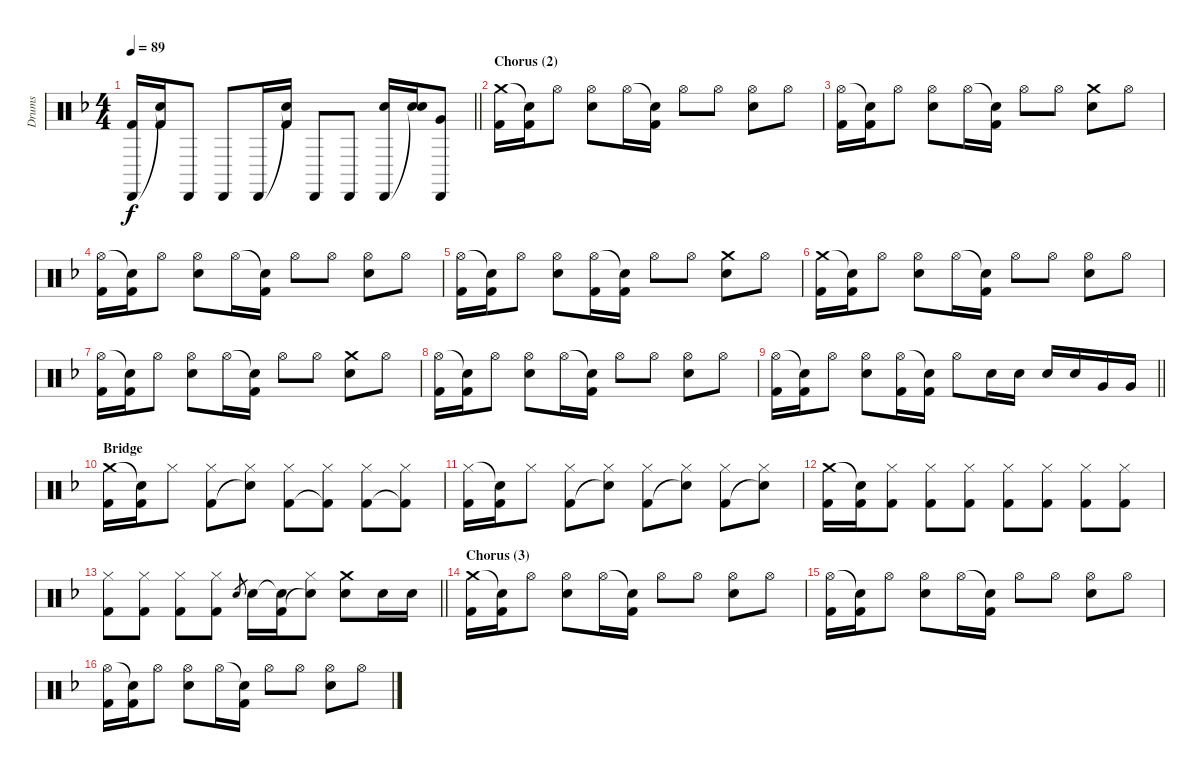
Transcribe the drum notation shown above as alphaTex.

\track ("Drums" "Drums") {instrument percussion}
\staff {score}
\articulation defaults
\ts (4 4)
\tempo 89
\clef neutral
\barLineRight lightlight
\ks dminor
("Cabasa (hit)" "Kick (hit) 2").16{dy f} ("Snare (hit)"{t} "Kick (hit) 2").16 "Cabasa (hit)".8 "Cabasa (hit)".8 "Cabasa (hit)".16 ("Snare (hit)"{t} "Kick (hit) 2").16 "Cabasa (hit)".8 "Cabasa (hit)".8 ("Cabasa (hit)" "Electric Snare (hit)").16 ("Snare (hit)"{t} "Electric Snare (hit)").16 ("Cabasa (hit)" "Very Low Tom (hit)").8 |
\section ("" "Chorus (2)")
("Crash medium (hit)" "Kick (hit) 2").16 ("Snare (hit)"{t} "Kick (hit) 2").16 "Hi-Hat (open)".8 ("Hi-Hat (open)" "Electric Snare (hit)").8 "Hi-Hat (open)".16 ("Snare (hit)"{t} "Kick (hit) 2").16 "Hi-Hat (open)".8 "Hi-Hat (open)".8 ("Hi-Hat (open)" "Electric Snare (hit)").8 "Hi-Hat (open)".8 |
("Hi-Hat (open)" "Kick (hit) 2").16 ("Snare (hit)"{t} "Kick (hit) 2").16 "Hi-Hat (open)".8 ("Hi-Hat (open)" "Electric Snare (hit)").8 "Hi-Hat (open)".16 ("Snare (hit)"{t} "Kick (hit) 2").16 "Hi-Hat (open)".8 "Hi-Hat (open)".8 ("Crash medium (hit)" "Electric Snare (hit)").8 "Hi-Hat (open)".8 |
("Hi-Hat (open)" "Kick (hit) 2").16 ("Snare (hit)"{t} "Kick (hit) 2").16 "Hi-Hat (open)".8 ("Hi-Hat (open)" "Electric Snare (hit)").8 "Hi-Hat (open)".16 ("Snare (hit)"{t} "Kick (hit) 2").16 "Hi-Hat (open)".8 "Hi-Hat (open)".8 ("Hi-Hat (open)" "Electric Snare (hit)").8 "Hi-Hat (open)".8 |
("Hi-Hat (open)" "Kick (hit) 2").16 ("Snare (hit)"{t} "Kick (hit) 2").16 "Hi-Hat (open)".8 ("Hi-Hat (open)" "Electric Snare (hit)").8 ("Hi-Hat (open)" "Kick (hit) 2").16 ("Snare (hit)"{t} "Kick (hit) 2").16 "Hi-Hat (open)".8 "Hi-Hat (open)".8 ("Crash medium (hit)" "Electric Snare (hit)").8 "Hi-Hat (open)".8 |
("Crash medium (hit)" "Kick (hit) 2").16 ("Snare (hit)"{t} "Kick (hit) 2").16 "Hi-Hat (open)".8 ("Hi-Hat (open)" "Electric Snare (hit)").8 "Hi-Hat (open)".16 ("Snare (hit)"{t} "Kick (hit) 2").16 "Hi-Hat (open)".8 "Hi-Hat (open)".8 ("Hi-Hat (open)" "Electric Snare (hit)").8 "Hi-Hat (open)".8 |
("Hi-Hat (open)" "Kick (hit) 2").16 ("Snare (hit)"{t} "Kick (hit) 2").16 "Hi-Hat (open)".8 ("Hi-Hat (open)" "Electric Snare (hit)").8 "Hi-Hat (open)".16 ("Snare (hit)"{t} "Kick (hit) 2").16 "Hi-Hat (open)".8 "Hi-Hat (open)".8 ("Crash medium (hit)" "Electric Snare (hit)").8 "Hi-Hat (open)".8 |
("Hi-Hat (open)" "Kick (hit) 2").16 ("Snare (hit)"{t} "Kick (hit) 2").16 "Hi-Hat (open)".8 ("Hi-Hat (open)" "Electric Snare (hit)").8 "Hi-Hat (open)".16 ("Snare (hit)"{t} "Kick (hit) 2").16 "Hi-Hat (open)".8 "Hi-Hat (open)".8 ("Hi-Hat (open)" "Electric Snare (hit)").8 "Hi-Hat (open)".8 |
\barLineRight lightlight
("Hi-Hat (open)" "Kick (hit) 2").16 ("Snare (hit)"{t} "Kick (hit) 2").16 "Hi-Hat (open)".8 ("Hi-Hat (open)" "Electric Snare (hit)").8 ("Hi-Hat (open)" "Kick (hit) 2").16 ("Snare (hit)"{t} "Kick (hit) 2").16 "Hi-Hat (open)".8 "Electric Snare (hit)".16 "Electric Snare (hit)".16 "Electric Snare (hit)".16 "Electric Snare (hit)".16 "Very Low Tom (hit)".16 "Very Low Tom (hit)".16 |
\section ("" "Bridge")
("Crash medium (hit)" "Kick (hit) 2").16 ("Snare (hit)"{t} "Kick (hit) 2").16 "Hi-Hat (closed)".8 ("Hi-Hat (closed)" "Kick (hit) 2").8 ("Hi-Hat (closed)" "Snare (hit)"{t}).8 ("Hi-Hat (closed)" "Kick (hit) 2").8 ("Hi-Hat (closed)" "Kick (hit) 2"{t}).8 ("Hi-Hat (closed)" "Kick (hit) 2").8 ("Hi-Hat (closed)" "Kick (hit) 2"{t}).8 |
("Hi-Hat (closed)" "Kick (hit) 2").16 ("Snare (hit)"{t} "Kick (hit) 2").16 "Hi-Hat (closed)".8 ("Hi-Hat (closed)" "Kick (hit) 2").8 ("Hi-Hat (closed)" "Snare (hit)"{t}).8 ("Hi-Hat (closed)" "Kick (hit) 2").8 ("Hi-Hat (closed)" "Snare (hit)"{t}).8 ("Hi-Hat (closed)" "Kick (hit) 2").8 ("Hi-Hat (closed)" "Snare (hit)"{t}).8 |
("Crash medium (hit)" "Kick (hit) 2").16 ("Snare (hit)"{t} "Kick (hit) 2").16 ("Hi-Hat (closed)" "Kick (hit) 2").8 ("Hi-Hat (closed)" "Kick (hit) 2").8 ("Hi-Hat (closed)" "Kick (hit) 2").8 ("Hi-Hat (closed)" "Kick (hit) 2").8 ("Hi-Hat (closed)" "Kick (hit) 2").8 ("Hi-Hat (closed)" "Kick (hit) 2").8 ("Hi-Hat (closed)" "Kick (hit) 2").8 |
\barLineRight lightlight
("Hi-Hat (closed)" "Kick (hit) 2").8 ("Hi-Hat (closed)" "Kick (hit) 2").8 ("Hi-Hat (closed)" "Kick (hit) 2").8 ("Hi-Hat (closed)" "Kick (hit) 2").8 "Electric Snare (hit)".8{gr} "Electric Snare (hit)".16 ("Snare (hit)"{t} "Kick (hit) 2").16 ("Hi-Hat (closed)" "Snare (hit)"{t}).8 ("Crash medium (hit)" "Electric Snare (hit)").8 "Electric Snare (hit)".16 "Electric Snare (hit)".16 |
\section ("" "Chorus (3)")
("Crash medium (hit)" "Kick (hit) 2").16 ("Snare (hit)"{t} "Kick (hit) 2").16 "Hi-Hat (open)".8 ("Hi-Hat (open)" "Electric Snare (hit)").8 "Hi-Hat (open)".16 ("Snare (hit)"{t} "Kick (hit) 2").16 "Hi-Hat (open)".8 "Hi-Hat (open)".8 ("Hi-Hat (open)" "Electric Snare (hit)").8 "Hi-Hat (open)".8 |
("Hi-Hat (open)" "Kick (hit) 2").16 ("Snare (hit)"{t} "Kick (hit) 2").16 "Hi-Hat (open)".8 ("Hi-Hat (open)" "Electric Snare (hit)").8 "Hi-Hat (open)".16 ("Snare (hit)"{t} "Kick (hit) 2").16 "Hi-Hat (open)".8 "Hi-Hat (open)".8 ("Hi-Hat (open)" "Electric Snare (hit)").8 "Hi-Hat (open)".8 |
("Hi-Hat (open)" "Kick (hit) 2").16 ("Snare (hit)"{t} "Kick (hit) 2").16 "Hi-Hat (open)".8 ("Hi-Hat (open)" "Electric Snare (hit)").8 "Hi-Hat (open)".16 ("Snare (hit)"{t} "Kick (hit) 2").16 "Hi-Hat (open)".8 "Hi-Hat (open)".8 ("Hi-Hat (open)" "Electric Snare (hit)").8 "Hi-Hat (open)".8
